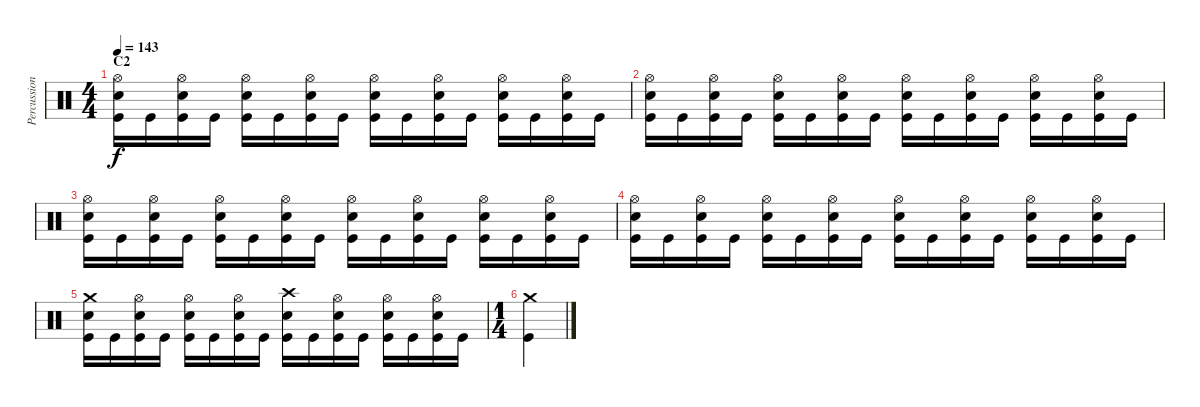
\track ("Percussion" "Percussion") {instrument percussion}
\staff {score}
\articulation defaults
\ts (4 4)
\section ("" "C2")
\tempo 143
\clef neutral
\ks c
("Kick (hit)" "Snare (hit) 2" "Hi-Hat (open)").16{dy f} "Kick (hit)".16 ("Kick (hit)" "Snare (hit) 2" "Hi-Hat (open)").16 "Kick (hit)".16 ("Kick (hit)" "Snare (hit) 2" "Hi-Hat (open)").16 "Kick (hit)".16 ("Kick (hit)" "Snare (hit) 2" "Hi-Hat (open)").16 "Kick (hit)".16 ("Kick (hit)" "Snare (hit) 2" "Hi-Hat (open)").16 "Kick (hit)".16 ("Kick (hit)" "Snare (hit) 2" "Hi-Hat (open)").16 "Kick (hit)".16 ("Kick (hit)" "Snare (hit) 2" "Hi-Hat (open)").16 "Kick (hit)".16 ("Kick (hit)" "Snare (hit) 2" "Hi-Hat (open)").16 "Kick (hit)".16 |
("Kick (hit)" "Snare (hit) 2" "Hi-Hat (open)").16 "Kick (hit)".16 ("Kick (hit)" "Snare (hit) 2" "Hi-Hat (open)").16 "Kick (hit)".16 ("Kick (hit)" "Snare (hit) 2" "Hi-Hat (open)").16 "Kick (hit)".16 ("Kick (hit)" "Snare (hit) 2" "Hi-Hat (open)").16 "Kick (hit)".16 ("Kick (hit)" "Snare (hit) 2" "Hi-Hat (open)").16 "Kick (hit)".16 ("Kick (hit)" "Snare (hit) 2" "Hi-Hat (open)").16 "Kick (hit)".16 ("Kick (hit)" "Snare (hit) 2" "Hi-Hat (open)").16 "Kick (hit)".16 ("Kick (hit)" "Snare (hit) 2" "Hi-Hat (open)").16 "Kick (hit)".16 |
("Kick (hit)" "Snare (hit) 2" "Hi-Hat (open)").16 "Kick (hit)".16 ("Kick (hit)" "Snare (hit) 2" "Hi-Hat (open)").16 "Kick (hit)".16 ("Kick (hit)" "Snare (hit) 2" "Hi-Hat (open)").16 "Kick (hit)".16 ("Kick (hit)" "Snare (hit) 2" "Hi-Hat (open)").16 "Kick (hit)".16 ("Kick (hit)" "Snare (hit) 2" "Hi-Hat (open)").16 "Kick (hit)".16 ("Kick (hit)" "Snare (hit) 2" "Hi-Hat (open)").16 "Kick (hit)".16 ("Kick (hit)" "Snare (hit) 2" "Hi-Hat (open)").16 "Kick (hit)".16 ("Kick (hit)" "Snare (hit) 2" "Hi-Hat (open)").16 "Kick (hit)".16 |
("Kick (hit)" "Snare (hit) 2" "Hi-Hat (open)").16 "Kick (hit)".16 ("Kick (hit)" "Snare (hit) 2" "Hi-Hat (open)").16 "Kick (hit)".16 ("Kick (hit)" "Snare (hit) 2" "Hi-Hat (open)").16 "Kick (hit)".16 ("Kick (hit)" "Snare (hit) 2" "Hi-Hat (open)").16 "Kick (hit)".16 ("Kick (hit)" "Snare (hit) 2" "Hi-Hat (open)").16 "Kick (hit)".16 ("Kick (hit)" "Snare (hit) 2" "Hi-Hat (open)").16 "Kick (hit)".16 ("Kick (hit)" "Snare (hit) 2" "Hi-Hat (open)").16 "Kick (hit)".16 ("Kick (hit)" "Snare (hit) 2" "Hi-Hat (open)").16 "Kick (hit)".16 |
("Kick (hit)" "Snare (hit) 2" "Crash medium (hit)").16 "Kick (hit)".16 ("Kick (hit)" "Snare (hit) 2" "Hi-Hat (open)").16 "Kick (hit)".16 ("Kick (hit)" "Snare (hit) 2" "Hi-Hat (open)").16 "Kick (hit)".16 ("Kick (hit)" "Snare (hit) 2" "Hi-Hat (open)").16 "Kick (hit)".16 ("Kick (hit)" "Snare (hit) 2" "Crash high (hit)").16 "Kick (hit)".16 ("Kick (hit)" "Snare (hit) 2" "Hi-Hat (open)").16 "Kick (hit)".16 ("Kick (hit)" "Snare (hit) 2" "Hi-Hat (open)").16 "Kick (hit)".16 ("Kick (hit)" "Snare (hit) 2" "Hi-Hat (open)").16 "Kick (hit)".16 |
\ts (1 4)
("Kick (hit)" "Crash medium (hit)").4
